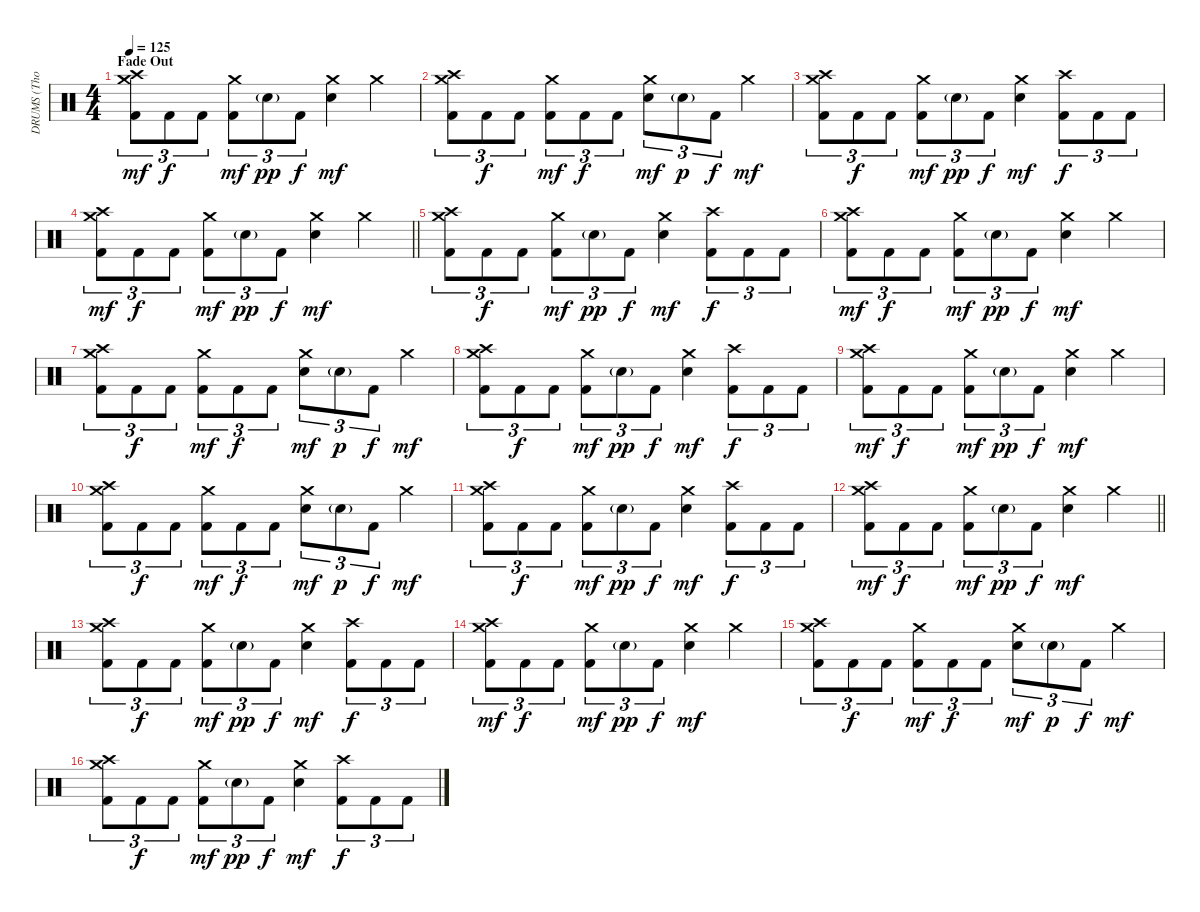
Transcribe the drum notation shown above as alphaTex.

\track ("DRUMS (Thomas Haake)" "DRUMS (Tho") {instrument percussion}
\staff {score}
\articulation defaults
\ts (4 4)
\section ("" "Fade Out")
\tempo 125
\clef neutral
\ks c
("Crash medium (hit)" "Crash high (hit)" "Kick (hit) 2").8{tu (3 2) dy mf volume 12} "Kick (hit) 2".8{tu (3 2) dy f} "Kick (hit) 2".8{tu (3 2)} ("Crash medium (hit)" "Kick (hit) 2").8{tu (3 2) dy mf} "Electric Snare (hit)"{g}.8{tu (3 2) dy pp} "Kick (hit) 2".8{tu (3 2) dy f} ("Crash medium (hit)" "Electric Snare (hit)").4{dy mf} "Crash medium (hit)".4 |
("Crash medium (hit)" "Crash high (hit)" "Kick (hit) 2").8{tu (3 2)} "Kick (hit) 2".8{tu (3 2) dy f} "Kick (hit) 2".8{tu (3 2)} ("Crash medium (hit)" "Kick (hit) 2").8{tu (3 2) dy mf} "Kick (hit) 2".8{tu (3 2) dy f} "Kick (hit) 2".8{tu (3 2)} ("Crash medium (hit)" "Electric Snare (hit)").8{tu (3 2) dy mf} "Electric Snare (hit)"{g}.8{tu (3 2) dy p} "Kick (hit) 2".8{tu (3 2) dy f} "Crash medium (hit)".4{dy mf} |
("Crash medium (hit)" "Crash high (hit)" "Kick (hit) 2").8{tu (3 2)} "Kick (hit) 2".8{tu (3 2) dy f} "Kick (hit) 2".8{tu (3 2)} ("Crash medium (hit)" "Kick (hit) 2").8{tu (3 2) dy mf} "Electric Snare (hit)"{g}.8{tu (3 2) dy pp} "Kick (hit) 2".8{tu (3 2) dy f} ("Crash medium (hit)" "Electric Snare (hit)").4{dy mf} ("Crash high (hit)" "Kick (hit) 2").8{tu (3 2) dy f} "Kick (hit) 2".8{tu (3 2)} "Kick (hit) 2".8{tu (3 2)} |
\barLineRight lightlight
("Crash medium (hit)" "Crash high (hit)" "Kick (hit) 2").8{tu (3 2) dy mf} "Kick (hit) 2".8{tu (3 2) dy f} "Kick (hit) 2".8{tu (3 2)} ("Crash medium (hit)" "Kick (hit) 2").8{tu (3 2) dy mf} "Electric Snare (hit)"{g}.8{tu (3 2) dy pp} "Kick (hit) 2".8{tu (3 2) dy f} ("Crash medium (hit)" "Electric Snare (hit)").4{dy mf} "Crash medium (hit)".4 |
("Crash medium (hit)" "Crash high (hit)" "Kick (hit) 2").8{tu (3 2) volume 10} "Kick (hit) 2".8{tu (3 2) dy f} "Kick (hit) 2".8{tu (3 2)} ("Crash medium (hit)" "Kick (hit) 2").8{tu (3 2) dy mf} "Electric Snare (hit)"{g}.8{tu (3 2) dy pp} "Kick (hit) 2".8{tu (3 2) dy f} ("Crash medium (hit)" "Electric Snare (hit)").4{dy mf} ("Crash high (hit)" "Kick (hit) 2").8{tu (3 2) dy f} "Kick (hit) 2".8{tu (3 2)} "Kick (hit) 2".8{tu (3 2)} |
("Crash medium (hit)" "Crash high (hit)" "Kick (hit) 2").8{tu (3 2) dy mf} "Kick (hit) 2".8{tu (3 2) dy f} "Kick (hit) 2".8{tu (3 2)} ("Crash medium (hit)" "Kick (hit) 2").8{tu (3 2) dy mf} "Electric Snare (hit)"{g}.8{tu (3 2) dy pp} "Kick (hit) 2".8{tu (3 2) dy f} ("Crash medium (hit)" "Electric Snare (hit)").4{dy mf} "Crash medium (hit)".4 |
("Crash medium (hit)" "Crash high (hit)" "Kick (hit) 2").8{tu (3 2)} "Kick (hit) 2".8{tu (3 2) dy f} "Kick (hit) 2".8{tu (3 2)} ("Crash medium (hit)" "Kick (hit) 2").8{tu (3 2) dy mf} "Kick (hit) 2".8{tu (3 2) dy f} "Kick (hit) 2".8{tu (3 2)} ("Crash medium (hit)" "Electric Snare (hit)").8{tu (3 2) dy mf} "Electric Snare (hit)"{g}.8{tu (3 2) dy p} "Kick (hit) 2".8{tu (3 2) dy f} "Crash medium (hit)".4{dy mf} |
("Crash medium (hit)" "Crash high (hit)" "Kick (hit) 2").8{tu (3 2)} "Kick (hit) 2".8{tu (3 2) dy f} "Kick (hit) 2".8{tu (3 2)} ("Crash medium (hit)" "Kick (hit) 2").8{tu (3 2) dy mf} "Electric Snare (hit)"{g}.8{tu (3 2) dy pp} "Kick (hit) 2".8{tu (3 2) dy f} ("Crash medium (hit)" "Electric Snare (hit)").4{dy mf} ("Crash high (hit)" "Kick (hit) 2").8{tu (3 2) dy f} "Kick (hit) 2".8{tu (3 2)} "Kick (hit) 2".8{tu (3 2)} |
("Crash medium (hit)" "Crash high (hit)" "Kick (hit) 2").8{tu (3 2) dy mf volume 9} "Kick (hit) 2".8{tu (3 2) dy f} "Kick (hit) 2".8{tu (3 2)} ("Crash medium (hit)" "Kick (hit) 2").8{tu (3 2) dy mf} "Electric Snare (hit)"{g}.8{tu (3 2) dy pp} "Kick (hit) 2".8{tu (3 2) dy f} ("Crash medium (hit)" "Electric Snare (hit)").4{dy mf} "Crash medium (hit)".4 |
("Crash medium (hit)" "Crash high (hit)" "Kick (hit) 2").8{tu (3 2)} "Kick (hit) 2".8{tu (3 2) dy f} "Kick (hit) 2".8{tu (3 2)} ("Crash medium (hit)" "Kick (hit) 2").8{tu (3 2) dy mf} "Kick (hit) 2".8{tu (3 2) dy f} "Kick (hit) 2".8{tu (3 2)} ("Crash medium (hit)" "Electric Snare (hit)").8{tu (3 2) dy mf} "Electric Snare (hit)"{g}.8{tu (3 2) dy p} "Kick (hit) 2".8{tu (3 2) dy f} "Crash medium (hit)".4{dy mf} |
("Crash medium (hit)" "Crash high (hit)" "Kick (hit) 2").8{tu (3 2)} "Kick (hit) 2".8{tu (3 2) dy f} "Kick (hit) 2".8{tu (3 2)} ("Crash medium (hit)" "Kick (hit) 2").8{tu (3 2) dy mf} "Electric Snare (hit)"{g}.8{tu (3 2) dy pp} "Kick (hit) 2".8{tu (3 2) dy f} ("Crash medium (hit)" "Electric Snare (hit)").4{dy mf} ("Crash high (hit)" "Kick (hit) 2").8{tu (3 2) dy f} "Kick (hit) 2".8{tu (3 2)} "Kick (hit) 2".8{tu (3 2)} |
\barLineRight lightlight
("Crash medium (hit)" "Crash high (hit)" "Kick (hit) 2").8{tu (3 2) dy mf} "Kick (hit) 2".8{tu (3 2) dy f} "Kick (hit) 2".8{tu (3 2)} ("Crash medium (hit)" "Kick (hit) 2").8{tu (3 2) dy mf} "Electric Snare (hit)"{g}.8{tu (3 2) dy pp} "Kick (hit) 2".8{tu (3 2) dy f} ("Crash medium (hit)" "Electric Snare (hit)").4{dy mf} "Crash medium (hit)".4 |
("Crash medium (hit)" "Crash high (hit)" "Kick (hit) 2").8{tu (3 2) volume 7} "Kick (hit) 2".8{tu (3 2) dy f} "Kick (hit) 2".8{tu (3 2)} ("Crash medium (hit)" "Kick (hit) 2").8{tu (3 2) dy mf} "Electric Snare (hit)"{g}.8{tu (3 2) dy pp} "Kick (hit) 2".8{tu (3 2) dy f} ("Crash medium (hit)" "Electric Snare (hit)").4{dy mf} ("Crash high (hit)" "Kick (hit) 2").8{tu (3 2) dy f} "Kick (hit) 2".8{tu (3 2)} "Kick (hit) 2".8{tu (3 2)} |
("Crash medium (hit)" "Crash high (hit)" "Kick (hit) 2").8{tu (3 2) dy mf} "Kick (hit) 2".8{tu (3 2) dy f} "Kick (hit) 2".8{tu (3 2)} ("Crash medium (hit)" "Kick (hit) 2").8{tu (3 2) dy mf} "Electric Snare (hit)"{g}.8{tu (3 2) dy pp} "Kick (hit) 2".8{tu (3 2) dy f} ("Crash medium (hit)" "Electric Snare (hit)").4{dy mf} "Crash medium (hit)".4 |
("Crash medium (hit)" "Crash high (hit)" "Kick (hit) 2").8{tu (3 2)} "Kick (hit) 2".8{tu (3 2) dy f} "Kick (hit) 2".8{tu (3 2)} ("Crash medium (hit)" "Kick (hit) 2").8{tu (3 2) dy mf} "Kick (hit) 2".8{tu (3 2) dy f} "Kick (hit) 2".8{tu (3 2)} ("Crash medium (hit)" "Electric Snare (hit)").8{tu (3 2) dy mf} "Electric Snare (hit)"{g}.8{tu (3 2) dy p} "Kick (hit) 2".8{tu (3 2) dy f} "Crash medium (hit)".4{dy mf} |
("Crash medium (hit)" "Crash high (hit)" "Kick (hit) 2").8{tu (3 2)} "Kick (hit) 2".8{tu (3 2) dy f} "Kick (hit) 2".8{tu (3 2)} ("Crash medium (hit)" "Kick (hit) 2").8{tu (3 2) dy mf} "Electric Snare (hit)"{g}.8{tu (3 2) dy pp} "Kick (hit) 2".8{tu (3 2) dy f} ("Crash medium (hit)" "Electric Snare (hit)").4{dy mf} ("Crash high (hit)" "Kick (hit) 2").8{tu (3 2) dy f} "Kick (hit) 2".8{tu (3 2)} "Kick (hit) 2".8{tu (3 2)}
